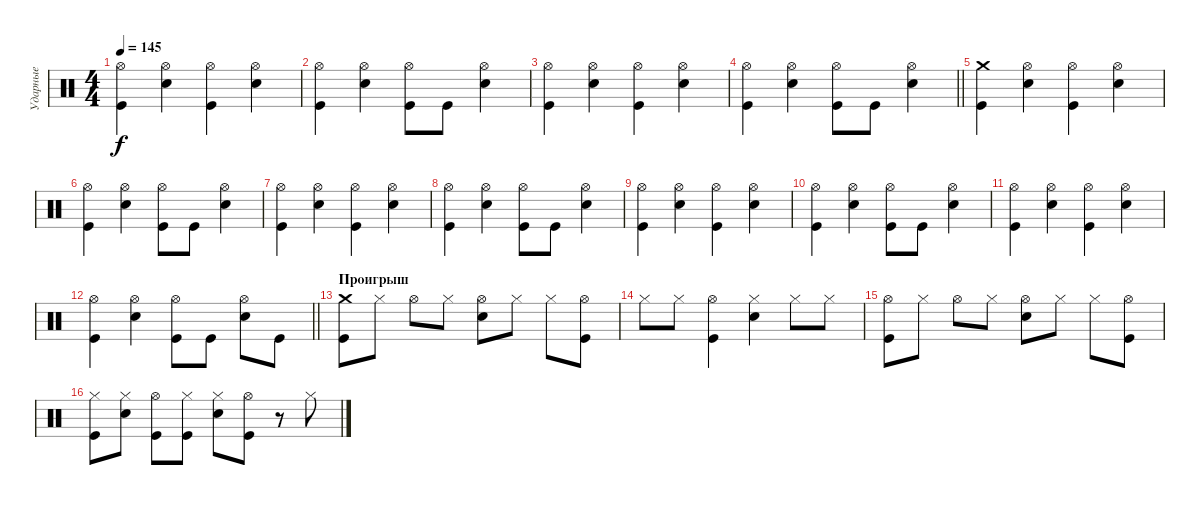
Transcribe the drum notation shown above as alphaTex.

\track ("Ударные" "Ударные") {instrument percussion}
\staff {score}
\articulation defaults
\ts (4 4)
\tempo 145
\clef neutral
\ks c
("Kick (hit)" "Hi-Hat (open)").4{dy f} ("Snare (hit) 2" "Hi-Hat (open)").4 ("Kick (hit)" "Hi-Hat (open)").4 ("Snare (hit) 2" "Hi-Hat (open)").4 |
("Kick (hit)" "Hi-Hat (open)").4 ("Snare (hit) 2" "Hi-Hat (open)").4 ("Kick (hit)" "Hi-Hat (open)").8 "Kick (hit)".8 ("Snare (hit) 2" "Hi-Hat (open)").4 |
("Kick (hit)" "Hi-Hat (open)").4 ("Snare (hit) 2" "Hi-Hat (open)").4 ("Kick (hit)" "Hi-Hat (open)").4 ("Snare (hit) 2" "Hi-Hat (open)").4 |
\barLineRight lightlight
("Kick (hit)" "Hi-Hat (open)").4 ("Snare (hit) 2" "Hi-Hat (open)").4 ("Kick (hit)" "Hi-Hat (open)").8 "Kick (hit)".8 ("Snare (hit) 2" "Hi-Hat (open)").4 |
("Kick (hit)" "Crash medium (hit)").4 ("Snare (hit) 2" "Hi-Hat (open)").4 ("Kick (hit)" "Hi-Hat (open)").4 ("Snare (hit) 2" "Hi-Hat (open)").4 |
("Kick (hit)" "Hi-Hat (open)").4 ("Snare (hit) 2" "Hi-Hat (open)").4 ("Kick (hit)" "Hi-Hat (open)").8 "Kick (hit)".8 ("Snare (hit) 2" "Hi-Hat (open)").4 |
("Kick (hit)" "Hi-Hat (open)").4 ("Snare (hit) 2" "Hi-Hat (open)").4 ("Kick (hit)" "Hi-Hat (open)").4 ("Snare (hit) 2" "Hi-Hat (open)").4 |
("Kick (hit)" "Hi-Hat (open)").4 ("Snare (hit) 2" "Hi-Hat (open)").4 ("Kick (hit)" "Hi-Hat (open)").8 "Kick (hit)".8 ("Snare (hit) 2" "Hi-Hat (open)").4 |
("Kick (hit)" "Hi-Hat (open)").4 ("Snare (hit) 2" "Hi-Hat (open)").4 ("Kick (hit)" "Hi-Hat (open)").4 ("Snare (hit) 2" "Hi-Hat (open)").4 |
("Kick (hit)" "Hi-Hat (open)").4 ("Snare (hit) 2" "Hi-Hat (open)").4 ("Kick (hit)" "Hi-Hat (open)").8 "Kick (hit)".8 ("Snare (hit) 2" "Hi-Hat (open)").4 |
("Kick (hit)" "Hi-Hat (open)").4 ("Snare (hit) 2" "Hi-Hat (open)").4 ("Kick (hit)" "Hi-Hat (open)").4 ("Snare (hit) 2" "Hi-Hat (open)").4 |
\barLineRight lightlight
("Kick (hit)" "Hi-Hat (open)").4 ("Snare (hit) 2" "Hi-Hat (open)").4 ("Kick (hit)" "Hi-Hat (open)").8 "Kick (hit)".8 ("Snare (hit) 2" "Hi-Hat (open)").8 "Kick (hit)".8 |
\section ("" "Проигрыш")
("Kick (hit)" "Crash medium (hit)").8 "Hi-Hat (closed)".8 "Hi-Hat (open)".8 "Hi-Hat (closed)".8 ("Snare (hit) 2" "Hi-Hat (open)").8 "Hi-Hat (closed)".8 "Hi-Hat (closed)".8 ("Kick (hit)" "Hi-Hat (open)").8 |
"Hi-Hat (closed)".8 "Hi-Hat (closed)".8 ("Kick (hit)" "Hi-Hat (open)").4 ("Snare (hit) 2" "Hi-Hat (closed)").4 "Hi-Hat (closed)".8 "Hi-Hat (closed)".8 |
("Kick (hit)" "Hi-Hat (open)").8 "Hi-Hat (closed)".8 "Hi-Hat (open)".8 "Hi-Hat (closed)".8 ("Snare (hit) 2" "Hi-Hat (open)").8 "Hi-Hat (closed)".8 "Hi-Hat (closed)".8 ("Kick (hit)" "Hi-Hat (open)").8 |
("Kick (hit)" "Hi-Hat (closed)").8 ("Snare (hit) 2" "Hi-Hat (closed)").8 ("Kick (hit)" "Hi-Hat (open)").8 ("Kick (hit)" "Hi-Hat (closed)").8 ("Snare (hit) 2" "Hi-Hat (closed)").8 ("Kick (hit)" "Hi-Hat (open)").8 r.8 "Hi-Hat (closed)".8
